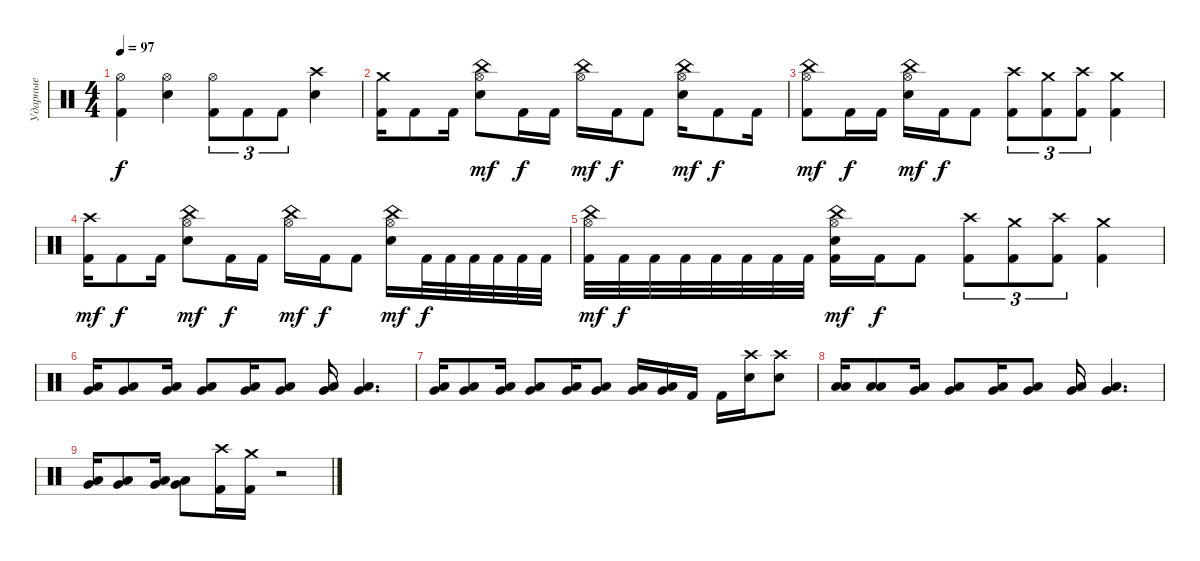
\track ("Ударные" "Ударные") {instrument percussion}
\staff {score}
\articulation defaults
\ts (4 4)
\tempo 97
\clef neutral
\ks c
("Hi-Hat (open)" "Kick (hit) 2").4{dy f} ("Hi-Hat (open)" "Snare (hit) 2").4 ("Hi-Hat (open)" "Kick (hit) 2").8{tu (3 2)} "Kick (hit) 2".8{tu (3 2)} "Kick (hit) 2".8{tu (3 2)} ("Crash high (hit)" "Snare (hit) 2").4 |
("Crash medium (hit)" "Kick (hit) 2").16 "Kick (hit) 2".8 "Kick (hit) 2".16 ("China (hit)" "Snare (hit) 2" "Hi-Hat (open)").8{dy mf} "Kick (hit) 2".16{dy f} "Kick (hit) 2".16 ("China (hit)" "Hi-Hat (open)").16{dy mf} "Kick (hit) 2".16{dy f} "Kick (hit) 2".8 ("China (hit)" "Snare (hit) 2" "Hi-Hat (open)").16{dy mf} "Kick (hit) 2".8{dy f} "Kick (hit) 2".16 |
("China (hit)" "Kick (hit) 2" "Hi-Hat (open)").8{dy mf} "Kick (hit) 2".16{dy f} "Kick (hit) 2".16 ("China (hit)" "Snare (hit) 2" "Hi-Hat (open)").16{dy mf} "Kick (hit) 2".16{dy f} "Kick (hit) 2".8 ("Crash high (hit)" "Kick (hit) 2").8{tu (3 2)} ("Crash medium (hit)" "Kick (hit) 2").8{tu (3 2)} ("Crash high (hit)" "Kick (hit) 2").8{tu (3 2)} ("Crash medium (hit)" "Kick (hit) 2").4 |
("Crash high (hit)" "Kick (hit) 2").16{dy mf} "Kick (hit) 2".8{dy f} "Kick (hit) 2".16 ("China (hit)" "Snare (hit) 2" "Hi-Hat (open)").8{dy mf} "Kick (hit) 2".16{dy f} "Kick (hit) 2".16 ("China (hit)" "Hi-Hat (open)").16{dy mf} "Kick (hit) 2".16{dy f} "Kick (hit) 2".8 ("China (hit)" "Snare (hit) 2" "Hi-Hat (open)").16{dy mf} "Kick (hit) 2".32{dy f} "Kick (hit) 2".32 "Kick (hit) 2".32 "Kick (hit) 2".32 "Kick (hit) 2".32 "Kick (hit) 2".32 |
("China (hit)" "Kick (hit) 2" "Hi-Hat (open)").32{dy mf} "Kick (hit) 2".32{dy f} "Kick (hit) 2".32 "Kick (hit) 2".32 "Kick (hit) 2".32 "Kick (hit) 2".32 "Kick (hit) 2".32 "Kick (hit) 2".32 ("China (hit)" "Kick (hit) 2" "Snare (hit) 2" "Hi-Hat (open)").16{dy mf} "Kick (hit) 2".16{dy f} "Kick (hit) 2".8 ("Crash high (hit)" "Kick (hit) 2").8{tu (3 2)} ("Crash medium (hit)" "Kick (hit) 2").8{tu (3 2)} ("Crash high (hit)" "Kick (hit) 2").8{tu (3 2)} ("Crash medium (hit)" "Kick (hit) 2").4 |
("Low Floor Tom (hit)" "Very Low Tom (hit)").16 ("Low Floor Tom (hit)" "Very Low Tom (hit)").8 ("Low Floor Tom (hit)" "Very Low Tom (hit)").16 ("Low Floor Tom (hit)" "Very Low Tom (hit)").8 ("Low Floor Tom (hit)" "Very Low Tom (hit)").16 ("Low Floor Tom (hit)" "Very Low Tom (hit)").8 ("Low Floor Tom (hit)" "Very Low Tom (hit)").16 ("Low Floor Tom (hit)" "Very Low Tom (hit)").4{d} |
("Low Tom (hit)" "Very Low Tom (hit)").16 ("Low Tom (hit)" "Very Low Tom (hit)").8 ("Low Floor Tom (hit)" "Very Low Tom (hit)").16 ("Low Floor Tom (hit)" "Very Low Tom (hit)").8 ("Low Floor Tom (hit)" "Very Low Tom (hit)").16 ("Low Floor Tom (hit)" "Very Low Tom (hit)").8 ("Low Floor Tom (hit)" "Very Low Tom (hit)").16 ("Low Floor Tom (hit)" "Very Low Tom (hit)").16 "Kick (hit) 2".16 "Kick (hit) 2".16 ("Crash high (hit)" "Snare (hit) 2").16 ("Crash high (hit)" "Snare (hit) 2").8 |
("Low Floor Tom (hit)" "Low Tom (hit)").16 ("Low Floor Tom (hit)" "Low Tom (hit)").8 ("Low Floor Tom (hit)" "Very Low Tom (hit)").16 ("Low Floor Tom (hit)" "Very Low Tom (hit)").8 ("Low Floor Tom (hit)" "Very Low Tom (hit)").16 ("Low Floor Tom (hit)" "Very Low Tom (hit)").8 ("Low Floor Tom (hit)" "Very Low Tom (hit)").16 ("Low Floor Tom (hit)" "Very Low Tom (hit)").4{d} |
("Low Tom (hit)" "Very Low Tom (hit)").16 ("Low Tom (hit)" "Very Low Tom (hit)").8 ("Low Floor Tom (hit)" "Very Low Tom (hit)").16 ("Low Floor Tom (hit)" "Very Low Tom (hit)").8 ("Crash high (hit)" "Kick (hit) 2").16 ("Crash medium (hit)" "Kick (hit) 2").16 r.2
